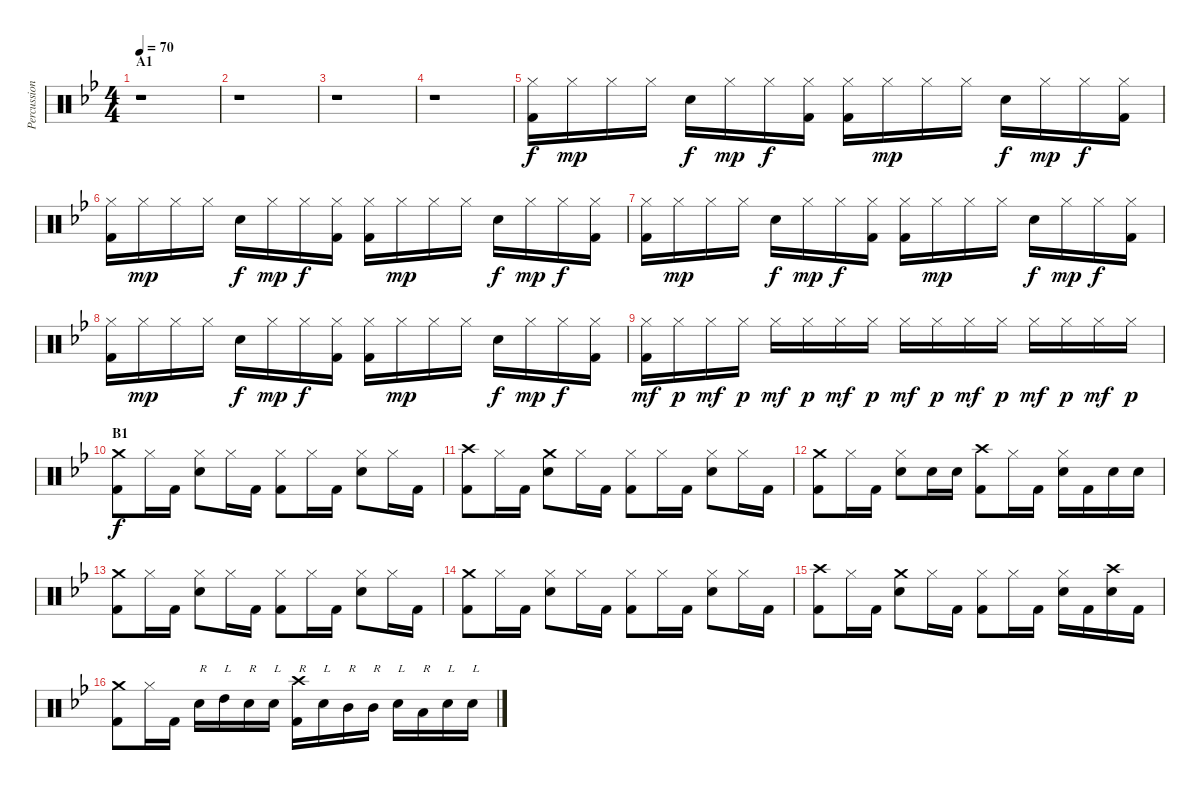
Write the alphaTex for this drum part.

\track ("Percussion" "Percussion") {instrument percussion}
\staff {score}
\articulation defaults
\ts (4 4)
\section ("" "A1")
\tempo 70
\clef neutral
\ks bb
r.1{dy f} |
r.1 |
r.1 |
r.1 |
("Hi-Hat (closed)" "Kick (hit) 2").16 "Hi-Hat (closed)".16{dy mp} "Hi-Hat (closed)".16 "Hi-Hat (closed)".16 "Electric Snare (hit)".16{dy f} "Hi-Hat (closed)".16{dy mp} "Hi-Hat (closed)".16{dy f} ("Hi-Hat (closed)" "Kick (hit) 2").16 ("Hi-Hat (closed)" "Kick (hit) 2").16 "Hi-Hat (closed)".16{dy mp} "Hi-Hat (closed)".16 "Hi-Hat (closed)".16 "Electric Snare (hit)".16{dy f} "Hi-Hat (closed)".16{dy mp} "Hi-Hat (closed)".16{dy f} ("Hi-Hat (closed)" "Kick (hit) 2").16 |
("Hi-Hat (closed)" "Kick (hit) 2").16 "Hi-Hat (closed)".16{dy mp} "Hi-Hat (closed)".16 "Hi-Hat (closed)".16 "Electric Snare (hit)".16{dy f} "Hi-Hat (closed)".16{dy mp} "Hi-Hat (closed)".16{dy f} ("Hi-Hat (closed)" "Kick (hit) 2").16 ("Hi-Hat (closed)" "Kick (hit) 2").16 "Hi-Hat (closed)".16{dy mp} "Hi-Hat (closed)".16 "Hi-Hat (closed)".16 "Electric Snare (hit)".16{dy f} "Hi-Hat (closed)".16{dy mp} "Hi-Hat (closed)".16{dy f} ("Hi-Hat (closed)" "Kick (hit) 2").16 |
("Hi-Hat (closed)" "Kick (hit) 2").16 "Hi-Hat (closed)".16{dy mp} "Hi-Hat (closed)".16 "Hi-Hat (closed)".16 "Electric Snare (hit)".16{dy f} "Hi-Hat (closed)".16{dy mp} "Hi-Hat (closed)".16{dy f} ("Hi-Hat (closed)" "Kick (hit) 2").16 ("Hi-Hat (closed)" "Kick (hit) 2").16 "Hi-Hat (closed)".16{dy mp} "Hi-Hat (closed)".16 "Hi-Hat (closed)".16 "Electric Snare (hit)".16{dy f} "Hi-Hat (closed)".16{dy mp} "Hi-Hat (closed)".16{dy f} ("Hi-Hat (closed)" "Kick (hit) 2").16 |
("Hi-Hat (closed)" "Kick (hit) 2").16 "Hi-Hat (closed)".16{dy mp} "Hi-Hat (closed)".16 "Hi-Hat (closed)".16 "Electric Snare (hit)".16{dy f} "Hi-Hat (closed)".16{dy mp} "Hi-Hat (closed)".16{dy f} ("Hi-Hat (closed)" "Kick (hit) 2").16 ("Hi-Hat (closed)" "Kick (hit) 2").16 "Hi-Hat (closed)".16{dy mp} "Hi-Hat (closed)".16 "Hi-Hat (closed)".16 "Electric Snare (hit)".16{dy f} "Hi-Hat (closed)".16{dy mp} "Hi-Hat (closed)".16{dy f} ("Hi-Hat (closed)" "Kick (hit) 2").16 |
("Hi-Hat (closed)" "Kick (hit) 2").16{dy mf} "Hi-Hat (closed)".16{dy p} "Hi-Hat (closed)".16{dy mf} "Hi-Hat (closed)".16{dy p} "Hi-Hat (closed)".16{dy mf} "Hi-Hat (closed)".16{dy p} "Hi-Hat (closed)".16{dy mf} "Hi-Hat (closed)".16{dy p} "Hi-Hat (closed)".16{dy mf} "Hi-Hat (closed)".16{dy p} "Hi-Hat (closed)".16{dy mf} "Hi-Hat (closed)".16{dy p} "Hi-Hat (closed)".16{dy mf} "Hi-Hat (closed)".16{dy p} "Hi-Hat (closed)".16{dy mf} "Hi-Hat (closed)".16{dy p} |
\section ("" "B1")
("Crash medium (hit)" "Kick (hit) 2").8{dy f} "Hi-Hat (closed)".16 "Kick (hit) 2".16 ("Hi-Hat (closed)" "Electric Snare (hit)").8 "Hi-Hat (closed)".16 "Kick (hit) 2".16 ("Hi-Hat (closed)" "Kick (hit) 2").8 "Hi-Hat (closed)".16 "Kick (hit) 2".16 ("Hi-Hat (closed)" "Electric Snare (hit)").8 "Hi-Hat (closed)".16 "Kick (hit) 2".16 |
("Crash high (hit)" "Kick (hit) 2").8 "Hi-Hat (closed)".16 "Kick (hit) 2".16 ("Crash medium (hit)" "Electric Snare (hit)").8 "Hi-Hat (closed)".16 "Kick (hit) 2".16 ("Hi-Hat (closed)" "Kick (hit) 2").8 "Hi-Hat (closed)".16 "Kick (hit) 2".16 ("Hi-Hat (closed)" "Electric Snare (hit)").8 "Hi-Hat (closed)".16 "Kick (hit) 2".16 |
("Crash medium (hit)" "Kick (hit) 2").8 "Hi-Hat (closed)".16 "Kick (hit) 2".16 ("Hi-Hat (closed)" "Electric Snare (hit)").8 "Electric Snare (hit)".16 "Electric Snare (hit)".16 ("Crash high (hit)" "Kick (hit) 2").8 "Hi-Hat (closed)".16 "Kick (hit) 2".16 ("Hi-Hat (closed)" "Electric Snare (hit)").16 "Kick (hit) 2".16 "Electric Snare (hit)".16 "Electric Snare (hit)".16 |
("Crash medium (hit)" "Kick (hit) 2").8 "Hi-Hat (closed)".16 "Kick (hit) 2".16 ("Hi-Hat (closed)" "Electric Snare (hit)").8 "Hi-Hat (closed)".16 "Kick (hit) 2".16 ("Hi-Hat (closed)" "Kick (hit) 2").8 "Hi-Hat (closed)".16 "Kick (hit) 2".16 ("Hi-Hat (closed)" "Electric Snare (hit)").8 "Hi-Hat (closed)".16 "Kick (hit) 2".16 |
("Crash medium (hit)" "Kick (hit) 2").8 "Hi-Hat (closed)".16 "Kick (hit) 2".16 ("Hi-Hat (closed)" "Electric Snare (hit)").8 "Hi-Hat (closed)".16 "Kick (hit) 2".16 ("Hi-Hat (closed)" "Kick (hit) 2").8 "Hi-Hat (closed)".16 "Kick (hit) 2".16 ("Hi-Hat (closed)" "Electric Snare (hit)").8 "Hi-Hat (closed)".16 "Kick (hit) 2".16 |
("Crash high (hit)" "Kick (hit) 2").8 "Hi-Hat (closed)".16 "Kick (hit) 2".16 ("Crash medium (hit)" "Electric Snare (hit)").8 "Hi-Hat (closed)".16 "Kick (hit) 2".16 ("Hi-Hat (closed)" "Kick (hit) 2").8 "Hi-Hat (closed)".16 "Kick (hit) 2".16 ("Hi-Hat (closed)" "Electric Snare (hit)").16 "Kick (hit) 2".16 ("Crash high (hit)" "Electric Snare (hit)").16 "Kick (hit) 2".16 |
("Crash medium (hit)" "Kick (hit) 2").8 "Hi-Hat (closed)".16 "Kick (hit) 2".16 "Electric Snare (hit)".16{txt "R"} "High Tom (hit)".16{txt "L"} "Electric Snare (hit)".16{txt "R"} "Electric Snare (hit)".16{txt "L"} ("Crash high (hit)" "Kick (hit) 2").16{txt "R"} "Electric Snare (hit)".16{txt "L"} "Mid Tom (hit)".16{txt "R"} "Mid Tom (hit)".16{txt "R"} "Electric Snare (hit)".16{txt "L"} "Low Tom (hit)".16{txt "R"} "Electric Snare (hit)".16{txt "L"} "Electric Snare (hit)".16{txt "L"}
